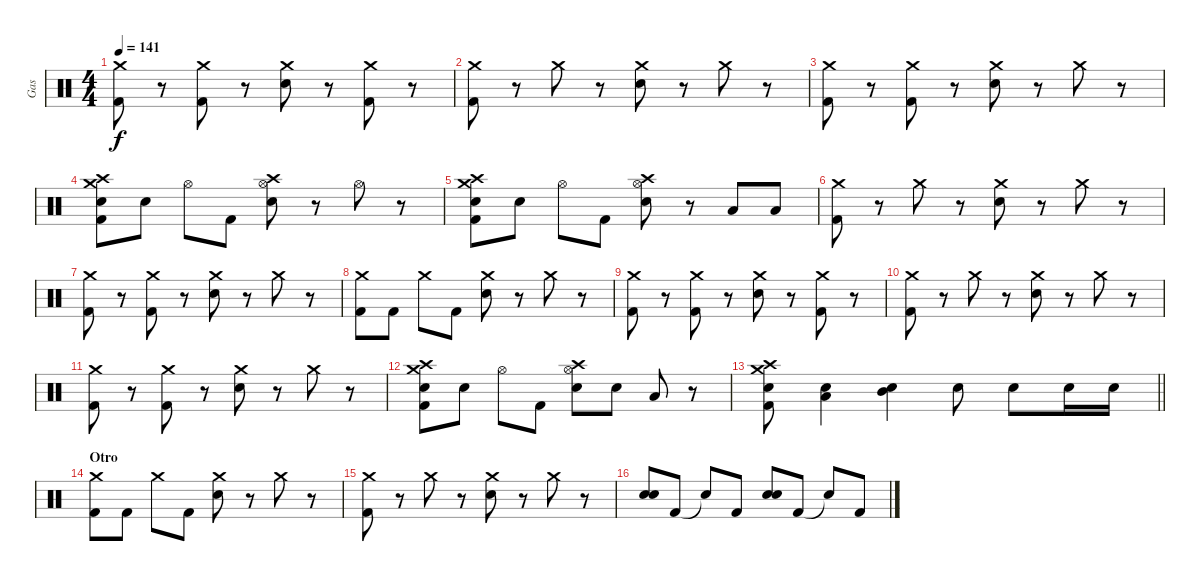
\track ("Gas" "Gas") {instrument percussion}
\staff {score}
\articulation defaults
\ts (4 4)
\tempo 141
\clef neutral
\ks c
("Crash medium (hit)" "Kick (hit) 2").8{dy f} r.8 ("Crash medium (hit)" "Kick (hit) 2").8 r.8 ("Crash medium (hit)" "Electric Snare (hit)").8 r.8 ("Crash medium (hit)" "Kick (hit) 2").8 r.8 |
("Crash medium (hit)" "Kick (hit) 2").8 r.8 "Crash medium (hit)".8 r.8 ("Crash medium (hit)" "Electric Snare (hit)").8 r.8 "Crash medium (hit)".8 r.8 |
("Crash medium (hit)" "Kick (hit) 2").8 r.8 ("Crash medium (hit)" "Kick (hit) 2").8 r.8 ("Crash medium (hit)" "Electric Snare (hit)").8 r.8 "Crash medium (hit)".8 r.8 |
("Crash high (hit)" "Crash medium (hit)" "Electric Snare (hit)" "Kick (hit) 2").8 "Electric Snare (hit)".8 "Hi-Hat (open)".8 "Kick (hit) 2".8 ("Crash high (hit)" "Hi-Hat (open)" "Electric Snare (hit)").8 r.8 "Hi-Hat (open)".8 r.8 |
("Crash high (hit)" "Crash medium (hit)" "Electric Snare (hit)" "Kick (hit) 2").8 "Electric Snare (hit)".8 "Hi-Hat (open)".8 "Kick (hit) 2".8 ("Crash high (hit)" "Hi-Hat (open)" "Electric Snare (hit)").8 r.8 "Low Tom (hit)".8 "Low Tom (hit)".8 |
("Crash medium (hit)" "Kick (hit) 2").8 r.8 "Crash medium (hit)".8 r.8 ("Crash medium (hit)" "Electric Snare (hit)").8 r.8 "Crash medium (hit)".8 r.8 |
("Crash medium (hit)" "Kick (hit) 2").8 r.8 ("Crash medium (hit)" "Kick (hit) 2").8 r.8 ("Crash medium (hit)" "Electric Snare (hit)").8 r.8 "Crash medium (hit)".8 r.8 |
("Crash medium (hit)" "Kick (hit) 2").8 "Kick (hit) 2".8 "Crash medium (hit)".8 "Kick (hit) 2".8 ("Crash medium (hit)" "Electric Snare (hit)").8 r.8 "Crash medium (hit)".8 r.8 |
("Crash medium (hit)" "Kick (hit) 2").8 r.8 ("Crash medium (hit)" "Kick (hit) 2").8 r.8 ("Crash medium (hit)" "Electric Snare (hit)").8 r.8 ("Crash medium (hit)" "Kick (hit) 2").8 r.8 |
("Crash medium (hit)" "Kick (hit) 2").8 r.8 "Crash medium (hit)".8 r.8 ("Crash medium (hit)" "Electric Snare (hit)").8 r.8 "Crash medium (hit)".8 r.8 |
("Crash medium (hit)" "Kick (hit) 2").8 r.8 ("Crash medium (hit)" "Kick (hit) 2").8 r.8 ("Crash medium (hit)" "Electric Snare (hit)").8 r.8 "Crash medium (hit)".8 r.8 |
("Crash high (hit)" "Crash medium (hit)" "Electric Snare (hit)" "Kick (hit) 2").8 "Electric Snare (hit)".8 "Hi-Hat (open)".8 "Kick (hit) 2".8 ("Crash high (hit)" "Hi-Hat (open)" "Electric Snare (hit)").8 "Electric Snare (hit)".8 "Low Tom (hit)".8 r.8 |
\barLineRight lightlight
("Crash high (hit)" "Crash medium (hit)" "Electric Snare (hit)" "Kick (hit) 2").8 ("Low Tom (hit)" "Electric Snare (hit)").4{bd 60} ("Mid Tom (hit)" "Electric Snare (hit)").4{bd 60} "Electric Snare (hit)".8 "Electric Snare (hit)".8 "Electric Snare (hit)".16 "Electric Snare (hit)".16 |
\section ("" "Otro")
("Crash medium (hit)" "Kick (hit) 2").8 "Kick (hit) 2".8 "Crash medium (hit)".8 "Kick (hit) 2".8 ("Crash medium (hit)" "Electric Snare (hit)").8 r.8 "Crash medium (hit)".8 r.8 |
("Crash medium (hit)" "Kick (hit) 2").8 r.8 "Crash medium (hit)".8 r.8 ("Crash medium (hit)" "Electric Snare (hit)").8 r.8 "Crash medium (hit)".8 r.8 |
("Electric Snare (hit)" "Electric Snare (hit)").8{bd 240} "Kick (hit) 2".8 "Snare (hit)"{t}.8 "Kick (hit) 2".8 ("Electric Snare (hit)" "Electric Snare (hit)").8{bd 240} "Kick (hit) 2".8 "Snare (hit)"{t}.8 "Kick (hit) 2".8
